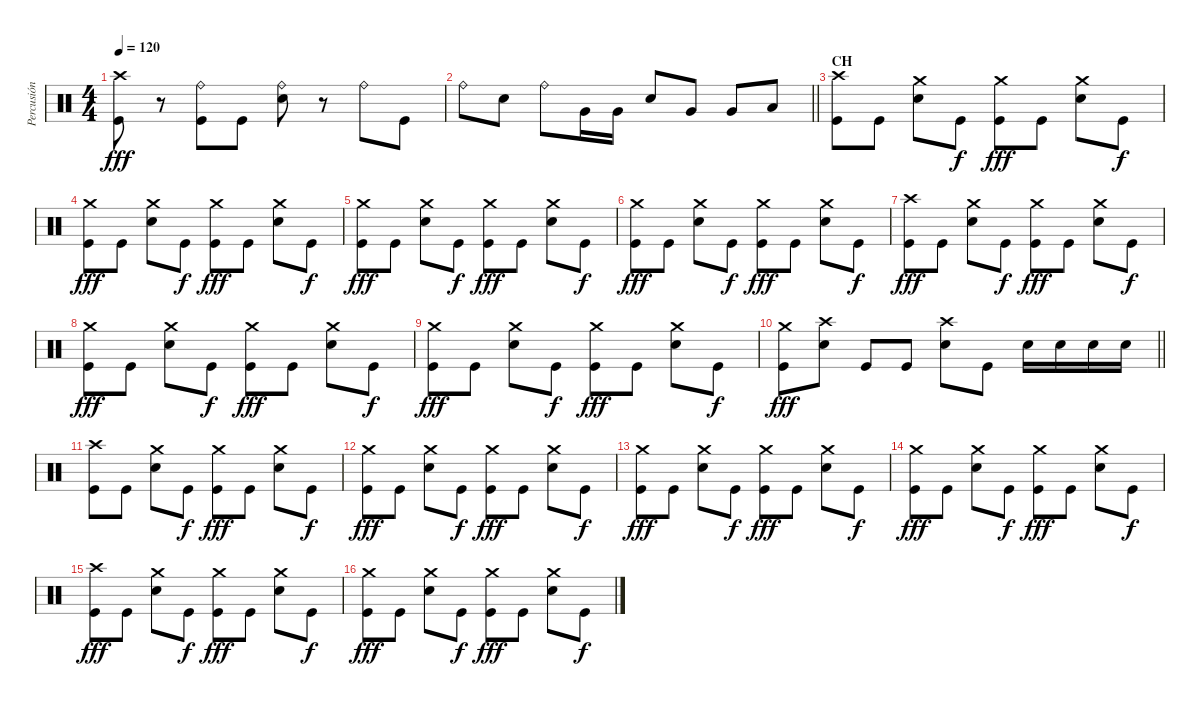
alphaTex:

\track ("Percusión" "Percusión") {instrument percussion}
\staff {score}
\articulation defaults
\ts (4 4)
\tempo 120
\clef neutral
\ks c
("Kick (hit)" "Crash high (hit)").8{dy fff} r.8 ("Ride (bell)" "Kick (hit)").8 "Kick (hit)".8 ("Ride (bell)" "Electric Snare (hit)").8 r.8 "Ride (bell)".8 "Kick (hit)".8 |
\barLineRight lightlight "Ride (bell)".8 "Electric Snare (hit)".8 "Ride (bell)".8 "Very Low Tom (hit)".16 "Very Low Tom (hit)".16 "Electric Snare (hit)".8 "Very Low Tom (hit)".8 "Very Low Tom (hit)".8 "Low Floor Tom (hit)".8
|
\section ("" "CH")
("Crash high (hit)" "Kick (hit)").8 "Kick (hit)".8 ("Crash medium (hit)" "Electric Snare (hit)").8 "Kick (hit)".8{dy f} ("Crash medium (hit)" "Kick (hit)").8{dy fff} "Kick (hit)".8 ("Crash medium (hit)" "Electric Snare (hit)").8 "Kick (hit)".8{dy f} |
("Crash medium (hit)" "Kick (hit)").8{dy fff} "Kick (hit)".8 ("Crash medium (hit)" "Electric Snare (hit)").8 "Kick (hit)".8{dy f} ("Crash medium (hit)" "Kick (hit)").8{dy fff} "Kick (hit)".8 ("Crash medium (hit)" "Electric Snare (hit)").8 "Kick (hit)".8{dy f} |
("Crash medium (hit)" "Kick (hit)").8{dy fff} "Kick (hit)".8 ("Crash medium (hit)" "Electric Snare (hit)").8 "Kick (hit)".8{dy f} ("Crash medium (hit)" "Kick (hit)").8{dy fff} "Kick (hit)".8 ("Crash medium (hit)" "Electric Snare (hit)").8 "Kick (hit)".8{dy f} |
("Crash medium (hit)" "Kick (hit)").8{dy fff} "Kick (hit)".8 ("Crash medium (hit)" "Electric Snare (hit)").8 "Kick (hit)".8{dy f} ("Crash medium (hit)" "Kick (hit)").8{dy fff} "Kick (hit)".8 ("Crash medium (hit)" "Electric Snare (hit)").8 "Kick (hit)".8{dy f} |
("Crash high (hit)" "Kick (hit)").8{dy fff} "Kick (hit)".8 ("Crash medium (hit)" "Electric Snare (hit)").8 "Kick (hit)".8{dy f} ("Crash medium (hit)" "Kick (hit)").8{dy fff} "Kick (hit)".8 ("Crash medium (hit)" "Electric Snare (hit)").8 "Kick (hit)".8{dy f} |
("Crash medium (hit)" "Kick (hit)").8{dy fff} "Kick (hit)".8 ("Crash medium (hit)" "Electric Snare (hit)").8 "Kick (hit)".8{dy f} ("Crash medium (hit)" "Kick (hit)").8{dy fff} "Kick (hit)".8 ("Crash medium (hit)" "Electric Snare (hit)").8 "Kick (hit)".8{dy f} |
("Crash medium (hit)" "Kick (hit)").8{dy fff} "Kick (hit)".8 ("Crash medium (hit)" "Electric Snare (hit)").8 "Kick (hit)".8{dy f} ("Crash medium (hit)" "Kick (hit)").8{dy fff} "Kick (hit)".8 ("Crash medium (hit)" "Electric Snare (hit)").8 "Kick (hit)".8{dy f} |
\barLineRight lightlight
("Crash medium (hit)" "Kick (hit)").8{dy fff} ("Crash high (hit)" "Electric Snare (hit)").8 "Kick (hit)".8 "Kick (hit)".8 ("Crash high (hit)" "Electric Snare (hit)").8 "Kick (hit)".8 "Electric Snare (hit)".16 "Electric Snare (hit)".16 "Electric Snare (hit)".16 "Electric Snare (hit)".16 |
("Crash high (hit)" "Kick (hit)").8 "Kick (hit)".8 ("Crash medium (hit)" "Electric Snare (hit)").8 "Kick (hit)".8{dy f} ("Crash medium (hit)" "Kick (hit)").8{dy fff} "Kick (hit)".8 ("Crash medium (hit)" "Electric Snare (hit)").8 "Kick (hit)".8{dy f} |
("Crash medium (hit)" "Kick (hit)").8{dy fff} "Kick (hit)".8 ("Crash medium (hit)" "Electric Snare (hit)").8 "Kick (hit)".8{dy f} ("Crash medium (hit)" "Kick (hit)").8{dy fff} "Kick (hit)".8 ("Crash medium (hit)" "Electric Snare (hit)").8 "Kick (hit)".8{dy f} |
("Crash medium (hit)" "Kick (hit)").8{dy fff} "Kick (hit)".8 ("Crash medium (hit)" "Electric Snare (hit)").8 "Kick (hit)".8{dy f} ("Crash medium (hit)" "Kick (hit)").8{dy fff} "Kick (hit)".8 ("Crash medium (hit)" "Electric Snare (hit)").8 "Kick (hit)".8{dy f} |
("Crash medium (hit)" "Kick (hit)").8{dy fff} "Kick (hit)".8 ("Crash medium (hit)" "Electric Snare (hit)").8 "Kick (hit)".8{dy f} ("Crash medium (hit)" "Kick (hit)").8{dy fff} "Kick (hit)".8 ("Crash medium (hit)" "Electric Snare (hit)").8 "Kick (hit)".8{dy f} |
("Crash high (hit)" "Kick (hit)").8{dy fff} "Kick (hit)".8 ("Crash medium (hit)" "Electric Snare (hit)").8 "Kick (hit)".8{dy f} ("Crash medium (hit)" "Kick (hit)").8{dy fff} "Kick (hit)".8 ("Crash medium (hit)" "Electric Snare (hit)").8 "Kick (hit)".8{dy f} |
("Crash medium (hit)" "Kick (hit)").8{dy fff} "Kick (hit)".8 ("Crash medium (hit)" "Electric Snare (hit)").8 "Kick (hit)".8{dy f} ("Crash medium (hit)" "Kick (hit)").8{dy fff} "Kick (hit)".8 ("Crash medium (hit)" "Electric Snare (hit)").8 "Kick (hit)".8{dy f}
